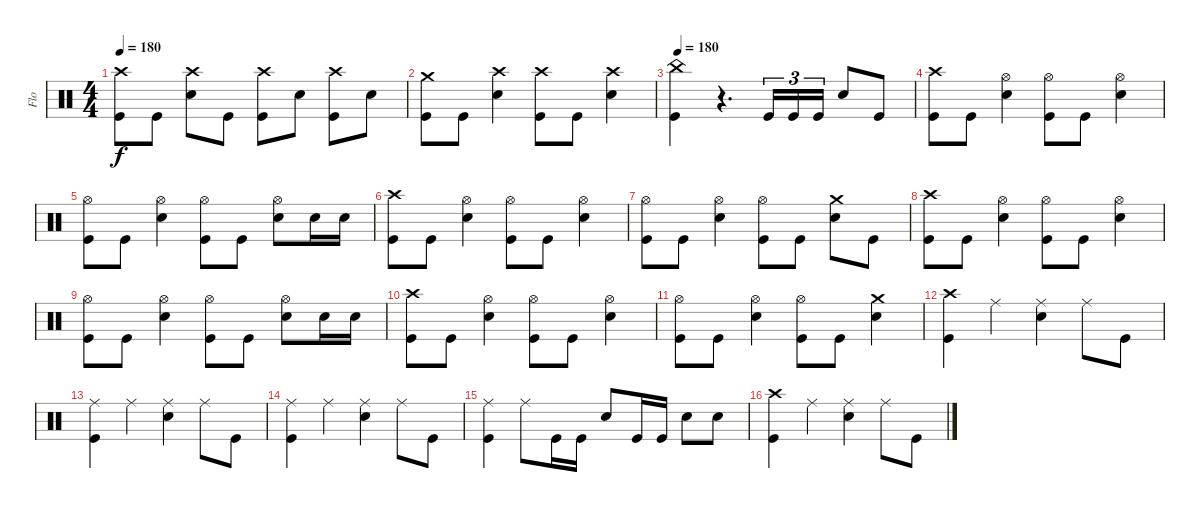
\track ("Flo" "Flo") {instrument percussion}
\staff {score}
\articulation defaults
\ts (4 4)
\tempo 180
\clef neutral
\ks c
("Crash high (hit)" "Kick (hit)").8{dy f} "Kick (hit)".8 ("Crash high (hit)" "Snare (hit) 2").8 "Kick (hit)".8 ("Crash high (hit)" "Kick (hit)").8 "Snare (hit) 2".8 ("Crash high (hit)" "Kick (hit)").8 "Snare (hit) 2".8 |
("Crash medium (hit)" "Kick (hit)").8 "Kick (hit)".8 ("Crash high (hit)" "Snare (hit) 2").4 ("Crash high (hit)" "Kick (hit)").8 "Kick (hit)".8 ("Crash high (hit)" "Snare (hit) 2").4 |
\tempo 180
("China (hit)" "Kick (hit)").4 r.4{d} "Kick (hit)".16{tu (3 2)} "Kick (hit)".16{tu (3 2)} "Kick (hit)".16{tu (3 2)} "Snare (hit) 2".8 "Kick (hit)".8 |
("Crash high (hit)" "Kick (hit)").8 "Kick (hit)".8 ("Hi-Hat (open)" "Snare (hit) 2").4 ("Hi-Hat (open)" "Kick (hit)").8 "Kick (hit)".8 ("Hi-Hat (open)" "Snare (hit) 2").4 |
("Hi-Hat (open)" "Kick (hit)").8 "Kick (hit)".8 ("Hi-Hat (open)" "Snare (hit) 2").4 ("Hi-Hat (open)" "Kick (hit)").8 "Kick (hit)".8 ("Hi-Hat (open)" "Snare (hit) 2").8 "Snare (hit) 2".16 "Snare (hit) 2".16 |
("Crash high (hit)" "Kick (hit)").8 "Kick (hit)".8 ("Hi-Hat (open)" "Snare (hit) 2").4 ("Hi-Hat (open)" "Kick (hit)").8 "Kick (hit)".8 ("Hi-Hat (open)" "Snare (hit) 2").4 |
("Hi-Hat (open)" "Kick (hit)").8 "Kick (hit)".8 ("Hi-Hat (open)" "Snare (hit) 2").4 ("Hi-Hat (open)" "Kick (hit)").8 "Kick (hit)".8 ("Crash medium (hit)" "Snare (hit) 2").8 "Kick (hit)".8 |
("Crash high (hit)" "Kick (hit)").8 "Kick (hit)".8 ("Hi-Hat (open)" "Snare (hit) 2").4 ("Hi-Hat (open)" "Kick (hit)").8 "Kick (hit)".8 ("Hi-Hat (open)" "Snare (hit) 2").4 |
("Hi-Hat (open)" "Kick (hit)").8 "Kick (hit)".8 ("Hi-Hat (open)" "Snare (hit) 2").4 ("Hi-Hat (open)" "Kick (hit)").8 "Kick (hit)".8 ("Hi-Hat (open)" "Snare (hit) 2").8 "Snare (hit) 2".16 "Snare (hit) 2".16 |
("Crash high (hit)" "Kick (hit)").8 "Kick (hit)".8 ("Hi-Hat (open)" "Snare (hit) 2").4 ("Hi-Hat (open)" "Kick (hit)").8 "Kick (hit)".8 ("Hi-Hat (open)" "Snare (hit) 2").4 |
("Hi-Hat (open)" "Kick (hit)").8 "Kick (hit)".8 ("Hi-Hat (open)" "Snare (hit) 2").4 ("Hi-Hat (open)" "Kick (hit)").8 "Kick (hit)".8 ("Crash medium (hit)" "Snare (hit) 2").4 |
("Crash high (hit)" "Kick (hit)").4 "Ride (middle)".4 ("Ride (middle)" "Snare (hit) 2").4 "Ride (middle)".8 "Kick (hit)".8 |
("Ride (middle)" "Kick (hit)").4 "Ride (middle)".4 ("Ride (middle)" "Snare (hit) 2").4 "Ride (middle)".8 "Kick (hit)".8 |
("Ride (middle)" "Kick (hit)").4 "Ride (middle)".4 ("Ride (middle)" "Snare (hit) 2").4 "Ride (middle)".8 "Kick (hit)".8 |
("Ride (middle)" "Kick (hit)").4 "Ride (middle)".8 "Kick (hit)".16 "Kick (hit)".16 "Snare (hit) 2".8 "Kick (hit)".16 "Kick (hit)".16 "Snare (hit) 2".8 "Snare (hit) 2".8 |
("Crash high (hit)" "Kick (hit)").4 "Ride (middle)".4 ("Ride (middle)" "Snare (hit) 2").4 "Ride (middle)".8 "Kick (hit)".8
